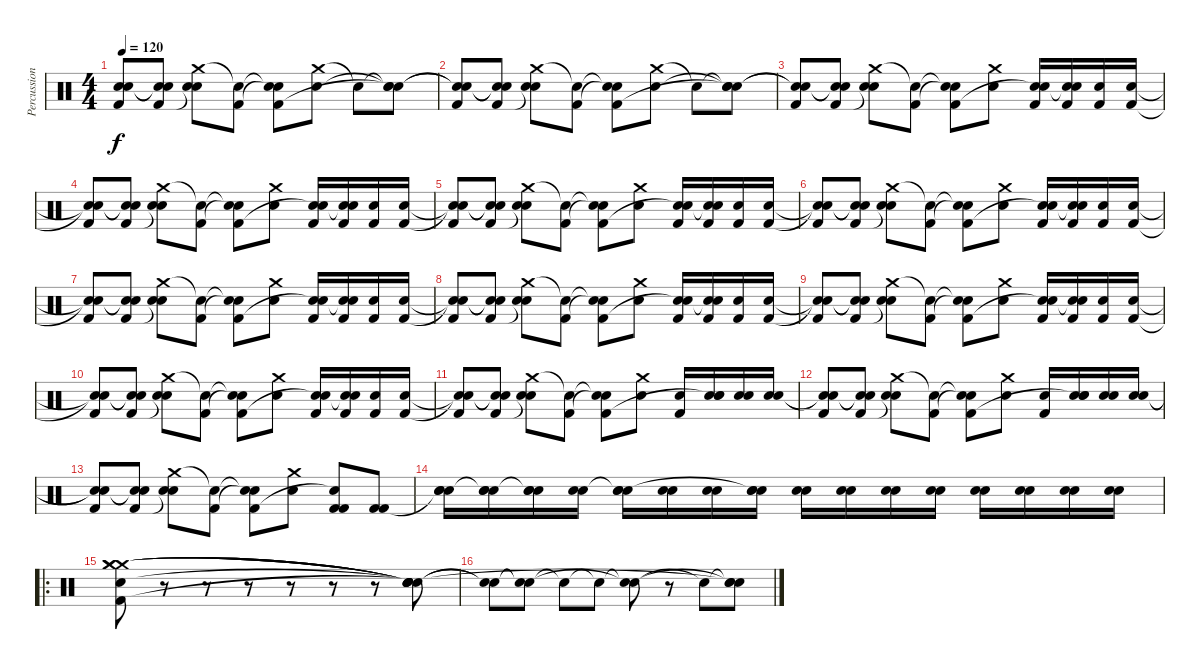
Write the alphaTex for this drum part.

\track ("Percussion" "Percussion") {instrument percussion}
\staff {score}
\articulation defaults
\ts (4 4)
\tempo 120
\clef neutral
\ks c
("Snare (hit)"{t} "Snare (hit)"{t} "Kick (hit) 2").8{dy f} ("Snare (hit)"{t} "Snare (hit)"{t} "Kick (hit) 2").8 ("Crash medium (hit)" "Snare (hit) 2" "Snare (hit)"{t}).8 ("Snare (hit)"{t} "Kick (hit) 2").8 ("Snare (hit)"{t} "Snare (hit)"{t} "Kick (hit) 2").8 ("Crash medium (hit)" "Snare (hit) 2").8 "Snare (hit)"{t}.8 ("Snare (hit)"{t} "Snare (hit)"{t} "Snare (hit)"{t}).8 |
("Snare (hit)"{t} "Snare (hit)"{t} "Kick (hit) 2").8 ("Snare (hit)"{t} "Snare (hit)"{t} "Kick (hit) 2").8 ("Crash medium (hit)" "Snare (hit) 2" "Snare (hit)"{t}).8 ("Snare (hit)"{t} "Kick (hit) 2").8 ("Snare (hit)"{t} "Snare (hit)"{t} "Kick (hit) 2").8 ("Crash medium (hit)" "Snare (hit) 2").8 "Snare (hit)"{t}.8 ("Snare (hit)"{t} "Snare (hit)"{t} "Snare (hit)"{t}).8 |
("Snare (hit)"{t} "Snare (hit)"{t} "Kick (hit) 2").8 ("Snare (hit)"{t} "Snare (hit)"{t} "Kick (hit) 2").8 ("Crash medium (hit)" "Snare (hit) 2" "Snare (hit)"{t}).8 ("Snare (hit)"{t} "Kick (hit) 2").8 ("Snare (hit)"{t} "Snare (hit)"{t} "Kick (hit) 2").8 ("Crash medium (hit)" "Snare (hit) 2").8 ("Kick (hit) 2" "Snare (hit) 2" "Snare (hit)"{t}).16 ("Kick (hit) 2" "Snare (hit) 2" "Snare (hit)"{t}).16 ("Kick (hit) 2" "Snare (hit) 2").16 ("Kick (hit) 2" "Snare (hit) 2").16 |
("Snare (hit)"{t} "Snare (hit)"{t} "Kick (hit) 2").8 ("Snare (hit)"{t} "Snare (hit)"{t} "Kick (hit) 2").8 ("Crash medium (hit)" "Snare (hit) 2" "Snare (hit)"{t}).8 ("Snare (hit)"{t} "Kick (hit) 2").8 ("Snare (hit)"{t} "Snare (hit)"{t} "Kick (hit) 2").8 ("Crash medium (hit)" "Snare (hit) 2").8 ("Kick (hit) 2" "Snare (hit) 2" "Snare (hit)"{t}).16 ("Kick (hit) 2" "Snare (hit) 2" "Snare (hit)"{t}).16 ("Kick (hit) 2" "Snare (hit) 2").16 ("Kick (hit) 2" "Snare (hit) 2").16 |
("Snare (hit)"{t} "Snare (hit)"{t} "Kick (hit) 2").8 ("Snare (hit)"{t} "Snare (hit)"{t} "Kick (hit) 2").8 ("Crash medium (hit)" "Snare (hit) 2" "Snare (hit)"{t}).8 ("Snare (hit)"{t} "Kick (hit) 2").8 ("Snare (hit)"{t} "Snare (hit)"{t} "Kick (hit) 2").8 ("Crash medium (hit)" "Snare (hit) 2").8 ("Kick (hit) 2" "Snare (hit) 2" "Snare (hit)"{t}).16 ("Kick (hit) 2" "Snare (hit) 2" "Snare (hit)"{t}).16 ("Kick (hit) 2" "Snare (hit) 2").16 ("Kick (hit) 2" "Snare (hit) 2").16 |
("Snare (hit)"{t} "Snare (hit)"{t} "Kick (hit) 2").8 ("Snare (hit)"{t} "Snare (hit)"{t} "Kick (hit) 2").8 ("Crash medium (hit)" "Snare (hit) 2" "Snare (hit)"{t}).8 ("Snare (hit)"{t} "Kick (hit) 2").8 ("Snare (hit)"{t} "Snare (hit)"{t} "Kick (hit) 2").8 ("Crash medium (hit)" "Snare (hit) 2").8 ("Kick (hit) 2" "Snare (hit) 2" "Snare (hit)"{t}).16 ("Kick (hit) 2" "Snare (hit) 2" "Snare (hit)"{t}).16 ("Kick (hit) 2" "Snare (hit) 2").16 ("Kick (hit) 2" "Snare (hit) 2").16 |
("Snare (hit)"{t} "Snare (hit)"{t} "Kick (hit) 2").8 ("Snare (hit)"{t} "Snare (hit)"{t} "Kick (hit) 2").8 ("Crash medium (hit)" "Snare (hit) 2" "Snare (hit)"{t}).8 ("Snare (hit)"{t} "Kick (hit) 2").8 ("Snare (hit)"{t} "Snare (hit)"{t} "Kick (hit) 2").8 ("Crash medium (hit)" "Snare (hit) 2").8 ("Kick (hit) 2" "Snare (hit) 2" "Snare (hit)"{t}).16 ("Kick (hit) 2" "Snare (hit) 2" "Snare (hit)"{t}).16 ("Kick (hit) 2" "Snare (hit) 2").16 ("Kick (hit) 2" "Snare (hit) 2").16 |
("Snare (hit)"{t} "Snare (hit)"{t} "Kick (hit) 2").8 ("Snare (hit)"{t} "Snare (hit)"{t} "Kick (hit) 2").8 ("Crash medium (hit)" "Snare (hit) 2" "Snare (hit)"{t}).8 ("Snare (hit)"{t} "Kick (hit) 2").8 ("Snare (hit)"{t} "Snare (hit)"{t} "Kick (hit) 2").8 ("Crash medium (hit)" "Snare (hit) 2").8 ("Kick (hit) 2" "Snare (hit) 2" "Snare (hit)"{t}).16 ("Kick (hit) 2" "Snare (hit) 2" "Snare (hit)"{t}).16 ("Kick (hit) 2" "Snare (hit) 2").16 ("Kick (hit) 2" "Snare (hit) 2").16 |
("Snare (hit)"{t} "Snare (hit)"{t} "Kick (hit) 2").8 ("Snare (hit)"{t} "Snare (hit)"{t} "Kick (hit) 2").8 ("Crash medium (hit)" "Snare (hit) 2" "Snare (hit)"{t}).8 ("Snare (hit)"{t} "Kick (hit) 2").8 ("Snare (hit)"{t} "Snare (hit)"{t} "Kick (hit) 2").8 ("Crash medium (hit)" "Snare (hit) 2").8 ("Kick (hit) 2" "Snare (hit) 2" "Snare (hit)"{t}).16 ("Kick (hit) 2" "Snare (hit) 2" "Snare (hit)"{t}).16 ("Kick (hit) 2" "Snare (hit) 2").16 ("Kick (hit) 2" "Snare (hit) 2").16 |
("Snare (hit)"{t} "Snare (hit)"{t} "Kick (hit) 2").8 ("Snare (hit)"{t} "Snare (hit)"{t} "Kick (hit) 2").8 ("Crash medium (hit)" "Snare (hit) 2" "Snare (hit)"{t}).8 ("Snare (hit)"{t} "Kick (hit) 2").8 ("Snare (hit)"{t} "Snare (hit)"{t} "Kick (hit) 2").8 ("Crash medium (hit)" "Snare (hit) 2").8 ("Kick (hit) 2" "Snare (hit) 2" "Snare (hit)"{t}).16 ("Kick (hit) 2" "Snare (hit) 2" "Snare (hit)"{t}).16 ("Kick (hit) 2" "Snare (hit) 2").16 ("Kick (hit) 2" "Snare (hit) 2").16 |
("Snare (hit)"{t} "Snare (hit)"{t} "Kick (hit) 2").8 ("Snare (hit)"{t} "Snare (hit)"{t} "Kick (hit) 2").8 ("Crash medium (hit)" "Snare (hit) 2" "Snare (hit)"{t}).8 ("Snare (hit)"{t} "Kick (hit) 2").8 ("Snare (hit)"{t} "Snare (hit)"{t} "Kick (hit) 2").8 ("Crash medium (hit)" "Snare (hit) 2").8 ("Kick (hit) 2" "Snare (hit) 2").16 ("Snare (hit) 2" "Snare (hit) 2" "Snare (hit)"{t}).16 ("Snare (hit) 2" "Snare (hit) 2").16 ("Snare (hit) 2" "Snare (hit) 2").16 |
("Snare (hit)"{t} "Snare (hit)"{t} "Kick (hit) 2").8 ("Snare (hit)"{t} "Snare (hit)"{t} "Kick (hit) 2").8 ("Crash medium (hit)" "Snare (hit) 2" "Snare (hit)"{t}).8 ("Snare (hit)"{t} "Kick (hit) 2").8 ("Snare (hit)"{t} "Snare (hit)"{t} "Kick (hit) 2").8 ("Crash medium (hit)" "Snare (hit) 2").8 ("Kick (hit) 2" "Snare (hit) 2").16 ("Snare (hit) 2" "Snare (hit) 2" "Snare (hit)"{t}).16 ("Snare (hit) 2" "Snare (hit) 2").16 ("Snare (hit) 2" "Snare (hit) 2").16 |
("Snare (hit)"{t} "Snare (hit)"{t} "Kick (hit) 2").8 ("Snare (hit)"{t} "Snare (hit)"{t} "Kick (hit) 2").8 ("Crash medium (hit)" "Snare (hit) 2" "Snare (hit)"{t}).8 ("Snare (hit)"{t} "Kick (hit) 2").8 ("Snare (hit)"{t} "Snare (hit)"{t} "Kick (hit) 2").8 ("Crash medium (hit)" "Snare (hit) 2").8 ("Kick (hit) 2" "Kick (hit) 2" "Snare (hit)"{t}).8 ("Kick (hit) 2" "Kick (hit) 2").8 |
("Snare (hit)"{t} "Snare (hit) 2" "Snare (hit) 2").16 ("Snare (hit)"{t} "Snare (hit) 2" "Snare (hit) 2").16 ("Snare (hit) 2" "Snare (hit) 2" "Snare (hit)"{t}).16 ("Snare (hit) 2" "Snare (hit) 2").16 ("Snare (hit)"{t} "Snare (hit) 2" "Snare (hit) 2").16 ("Snare (hit) 2" "Snare (hit) 2").16 ("Snare (hit) 2" "Snare (hit) 2").16 ("Snare (hit) 2" "Snare (hit) 2" "Snare (hit)"{t}).16 ("Snare (hit) 2" "Snare (hit) 2").16 ("Snare (hit) 2" "Snare (hit) 2").16 ("Snare (hit) 2" "Snare (hit) 2").16 ("Snare (hit) 2" "Snare (hit) 2").16 ("Snare (hit) 2" "Snare (hit) 2").16 ("Snare (hit) 2" "Snare (hit) 2").16 ("Snare (hit) 2" "Snare (hit) 2").16 ("Snare (hit) 2" "Snare (hit) 2").16 |
\ro
("Kick (hit) 2" "Snare (hit)" "Crash medium (hit)" "Crash medium (hit)" "Crash medium (hit)").8 r.8 r.8 r.8 r.8 r.8 r.8 ("Snare (hit)"{t} "Snare (hit)"{t} "Snare (hit)"{t} "Snare (hit)"{t} "Snare (hit)"{t}).8 |
("Snare (hit)"{t} "Snare (hit)"{t}).8 ("Snare (hit)"{t} "Snare (hit)"{t}).8 "Snare (hit)"{t}.8 "Snare (hit)"{t}.8 ("Snare (hit)"{t} "Snare (hit)"{t}).8 r.8 "Snare (hit)"{t}.8 ("Snare (hit)"{t} "Snare (hit)"{t} "Snare (hit)"{t}).8
